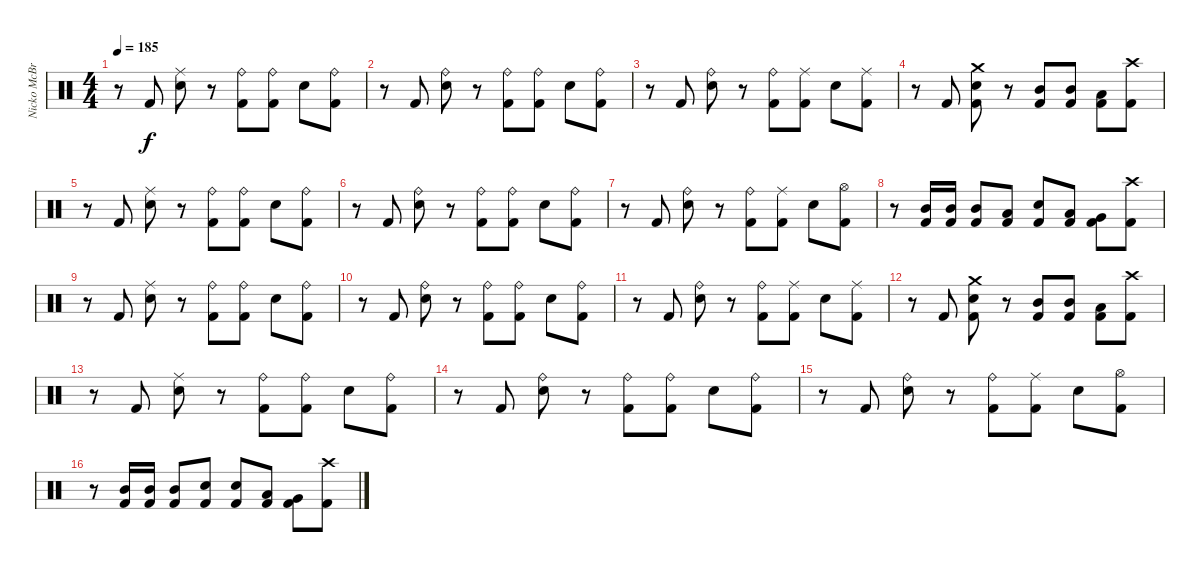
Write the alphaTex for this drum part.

\track ("Nicko McBrain" "Nicko McBr") {instrument percussion}
\staff {score}
\articulation defaults
\ts (4 4)
\tempo 185
\clef neutral
\ks c
r.8{dy f} "Kick (hit) 2".8 ("Ride (middle)" "Snare (hit) 2").8 r.8 ("Ride (bell)" "Kick (hit) 2").8 ("Ride (bell)" "Kick (hit) 2").8 "Snare (hit) 2".8 ("Ride (bell)" "Kick (hit) 2").8 |
r.8 "Kick (hit) 2".8 ("Ride (bell)" "Snare (hit) 2").8 r.8 ("Ride (bell)" "Kick (hit) 2").8 ("Ride (bell)" "Kick (hit) 2").8 "Snare (hit) 2".8 ("Ride (bell)" "Kick (hit) 2").8 |
r.8 "Kick (hit) 2".8 ("Ride (bell)" "Snare (hit) 2").8 r.8 ("Ride (bell)" "Kick (hit) 2").8 ("Ride (middle)" "Kick (hit) 2").8 "Snare (hit) 2".8 ("Ride (middle)" "Kick (hit) 2").8 |
r.8 "Kick (hit) 2".8 ("Crash medium (hit)" "Snare (hit) 2" "Kick (hit) 2").8 r.8 ("Mid Tom (hit)" "Kick (hit) 2").8 ("Mid Tom (hit)" "Kick (hit) 2").8 ("Low Tom (hit)" "Kick (hit) 2").8 ("Crash high (hit)" "Kick (hit) 2").8 |
r.8 "Kick (hit) 2".8 ("Ride (middle)" "Snare (hit) 2").8 r.8 ("Ride (bell)" "Kick (hit) 2").8 ("Ride (bell)" "Kick (hit) 2").8 "Snare (hit) 2".8 ("Ride (bell)" "Kick (hit) 2").8 |
r.8 "Kick (hit) 2".8 ("Ride (bell)" "Snare (hit) 2").8 r.8 ("Ride (bell)" "Kick (hit) 2").8 ("Ride (bell)" "Kick (hit) 2").8 "Snare (hit) 2".8 ("Ride (bell)" "Kick (hit) 2").8 |
r.8 "Kick (hit) 2".8 ("Ride (bell)" "Snare (hit) 2").8 r.8 ("Ride (bell)" "Kick (hit) 2").8 ("Ride (middle)" "Kick (hit) 2").8 "Snare (hit) 2".8 ("Hi-Hat (open)" "Kick (hit) 2").8 |
r.8 ("Mid Tom (hit)" "Kick (hit) 2").16 ("Mid Tom (hit)" "Kick (hit) 2").16 ("Mid Tom (hit)" "Kick (hit) 2").8 ("Low Tom (hit)" "Kick (hit) 2").8 ("Snare (hit) 2" "Kick (hit) 2").8 ("Low Tom (hit)" "Kick (hit) 2").8 ("Very Low Tom (hit)" "Kick (hit) 2").8 ("Crash high (hit)" "Kick (hit) 2").8 |
r.8 "Kick (hit) 2".8 ("Ride (middle)" "Snare (hit) 2").8 r.8 ("Ride (bell)" "Kick (hit) 2").8 ("Ride (bell)" "Kick (hit) 2").8 "Snare (hit) 2".8 ("Ride (bell)" "Kick (hit) 2").8 |
r.8 "Kick (hit) 2".8 ("Ride (bell)" "Snare (hit) 2").8 r.8 ("Ride (bell)" "Kick (hit) 2").8 ("Ride (bell)" "Kick (hit) 2").8 "Snare (hit) 2".8 ("Ride (bell)" "Kick (hit) 2").8 |
r.8 "Kick (hit) 2".8 ("Ride (bell)" "Snare (hit) 2").8 r.8 ("Ride (bell)" "Kick (hit) 2").8 ("Ride (middle)" "Kick (hit) 2").8 "Snare (hit) 2".8 ("Ride (middle)" "Kick (hit) 2").8 |
r.8 "Kick (hit) 2".8 ("Crash medium (hit)" "Snare (hit) 2" "Kick (hit) 2").8 r.8 ("Mid Tom (hit)" "Kick (hit) 2").8 ("Mid Tom (hit)" "Kick (hit) 2").8 ("Low Tom (hit)" "Kick (hit) 2").8 ("Crash high (hit)" "Kick (hit) 2").8 |
r.8 "Kick (hit) 2".8 ("Ride (middle)" "Snare (hit) 2").8 r.8 ("Ride (bell)" "Kick (hit) 2").8 ("Ride (bell)" "Kick (hit) 2").8 "Snare (hit) 2".8 ("Ride (bell)" "Kick (hit) 2").8 |
r.8 "Kick (hit) 2".8 ("Ride (bell)" "Snare (hit) 2").8 r.8 ("Ride (bell)" "Kick (hit) 2").8 ("Ride (bell)" "Kick (hit) 2").8 "Snare (hit) 2".8 ("Ride (bell)" "Kick (hit) 2").8 |
r.8 "Kick (hit) 2".8 ("Ride (bell)" "Snare (hit) 2").8 r.8 ("Ride (bell)" "Kick (hit) 2").8 ("Ride (middle)" "Kick (hit) 2").8 "Snare (hit) 2".8 ("Hi-Hat (open)" "Kick (hit) 2").8 |
r.8 ("Mid Tom (hit)" "Kick (hit) 2").16 ("Mid Tom (hit)" "Kick (hit) 2").16 ("Mid Tom (hit)" "Kick (hit) 2").8 ("Snare (hit) 2" "Kick (hit) 2").8 ("Snare (hit) 2" "Kick (hit) 2").8 ("Low Tom (hit)" "Kick (hit) 2").8 ("Very Low Tom (hit)" "Kick (hit) 2").8 ("Crash high (hit)" "Kick (hit) 2").8
